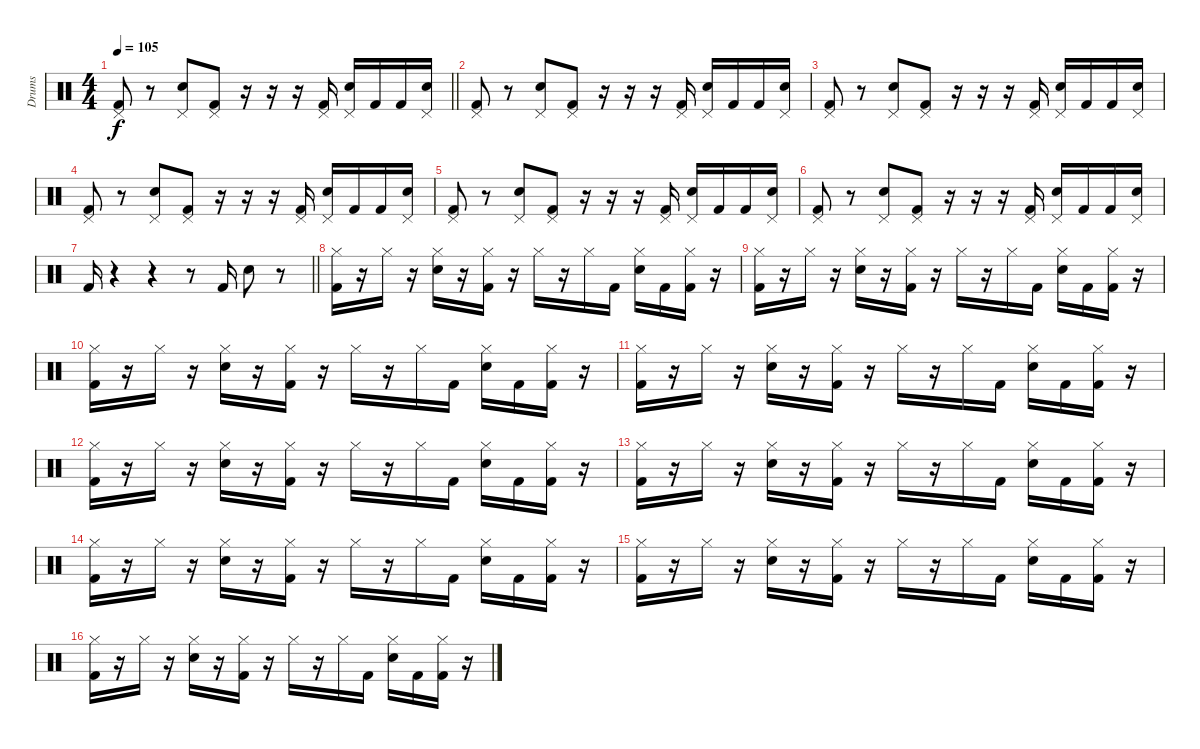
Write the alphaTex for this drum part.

\track ("Drums" "Drums") {instrument percussion}
\staff {score}
\articulation defaults
\ts (4 4)
\tempo 105
\clef neutral
\barLineRight lightlight
\ks c
("Pedal Hi-Hat (hit)" "Kick (hit) 2").8{dy f} r.8 ("Pedal Hi-Hat (hit)" "Snare (hit) 2").8 ("Pedal Hi-Hat (hit)" "Kick (hit) 2").8 r.16 r.16 r.16 ("Pedal Hi-Hat (hit)" "Kick (hit) 2").16 ("Pedal Hi-Hat (hit)" "Snare (hit) 2").16 "Kick (hit) 2".16 "Kick (hit) 2".16 ("Pedal Hi-Hat (hit)" "Snare (hit) 2").16 |
("Pedal Hi-Hat (hit)" "Kick (hit) 2").8 r.8 ("Pedal Hi-Hat (hit)" "Snare (hit) 2").8 ("Pedal Hi-Hat (hit)" "Kick (hit) 2").8 r.16 r.16 r.16 ("Pedal Hi-Hat (hit)" "Kick (hit) 2").16 ("Pedal Hi-Hat (hit)" "Snare (hit) 2").16 "Kick (hit) 2".16 "Kick (hit) 2".16 ("Pedal Hi-Hat (hit)" "Snare (hit) 2").16 |
("Pedal Hi-Hat (hit)" "Kick (hit) 2").8 r.8 ("Pedal Hi-Hat (hit)" "Snare (hit) 2").8 ("Pedal Hi-Hat (hit)" "Kick (hit) 2").8 r.16 r.16 r.16 ("Pedal Hi-Hat (hit)" "Kick (hit) 2").16 ("Pedal Hi-Hat (hit)" "Snare (hit) 2").16 "Kick (hit) 2".16 "Kick (hit) 2".16 ("Pedal Hi-Hat (hit)" "Snare (hit) 2").16 |
("Pedal Hi-Hat (hit)" "Kick (hit) 2").8 r.8 ("Pedal Hi-Hat (hit)" "Snare (hit) 2").8 ("Pedal Hi-Hat (hit)" "Kick (hit) 2").8 r.16 r.16 r.16 ("Pedal Hi-Hat (hit)" "Kick (hit) 2").16 ("Pedal Hi-Hat (hit)" "Snare (hit) 2").16 "Kick (hit) 2".16 "Kick (hit) 2".16 ("Pedal Hi-Hat (hit)" "Snare (hit) 2").16 |
("Pedal Hi-Hat (hit)" "Kick (hit) 2").8 r.8 ("Pedal Hi-Hat (hit)" "Snare (hit) 2").8 ("Pedal Hi-Hat (hit)" "Kick (hit) 2").8 r.16 r.16 r.16 ("Pedal Hi-Hat (hit)" "Kick (hit) 2").16 ("Pedal Hi-Hat (hit)" "Snare (hit) 2").16 "Kick (hit) 2".16 "Kick (hit) 2".16 ("Pedal Hi-Hat (hit)" "Snare (hit) 2").16 |
("Pedal Hi-Hat (hit)" "Kick (hit) 2").8 r.8 ("Pedal Hi-Hat (hit)" "Snare (hit) 2").8 ("Pedal Hi-Hat (hit)" "Kick (hit) 2").8 r.16 r.16 r.16 ("Pedal Hi-Hat (hit)" "Kick (hit) 2").16 ("Pedal Hi-Hat (hit)" "Snare (hit) 2").16 "Kick (hit) 2".16 "Kick (hit) 2".16 ("Pedal Hi-Hat (hit)" "Snare (hit) 2").16 |
\barLineRight lightlight "Kick (hit) 2".16
r.4 r.4 r.8 "Kick (hit) 2".16 "Electric Snare (hit)".8 r.8 |
("Hi-Hat (closed)" "Kick (hit) 2").16 r.16 "Hi-Hat (closed)".16 r.16 ("Hi-Hat (closed)" "Electric Snare (hit)").16 r.16 ("Hi-Hat (closed)" "Kick (hit) 2").16 r.16 "Hi-Hat (closed)".16 r.16 "Hi-Hat (closed)".16 "Kick (hit) 2".16 ("Hi-Hat (closed)" "Electric Snare (hit)").16 "Kick (hit) 2".16 ("Hi-Hat (closed)" "Kick (hit) 2").16 r.16 |
("Hi-Hat (closed)" "Kick (hit) 2").16 r.16 "Hi-Hat (closed)".16 r.16 ("Hi-Hat (closed)" "Electric Snare (hit)").16 r.16 ("Hi-Hat (closed)" "Kick (hit) 2").16 r.16 "Hi-Hat (closed)".16 r.16 "Hi-Hat (closed)".16 "Kick (hit) 2".16 ("Hi-Hat (closed)" "Electric Snare (hit)").16 "Kick (hit) 2".16 ("Hi-Hat (closed)" "Kick (hit) 2").16 r.16 |
("Hi-Hat (closed)" "Kick (hit) 2").16 r.16 "Hi-Hat (closed)".16 r.16 ("Hi-Hat (closed)" "Electric Snare (hit)").16 r.16 ("Hi-Hat (closed)" "Kick (hit) 2").16 r.16 "Hi-Hat (closed)".16 r.16 "Hi-Hat (closed)".16 "Kick (hit) 2".16 ("Hi-Hat (closed)" "Electric Snare (hit)").16 "Kick (hit) 2".16 ("Hi-Hat (closed)" "Kick (hit) 2").16 r.16 |
("Hi-Hat (closed)" "Kick (hit) 2").16 r.16 "Hi-Hat (closed)".16 r.16 ("Hi-Hat (closed)" "Electric Snare (hit)").16 r.16 ("Hi-Hat (closed)" "Kick (hit) 2").16 r.16 "Hi-Hat (closed)".16 r.16 "Hi-Hat (closed)".16 "Kick (hit) 2".16 ("Hi-Hat (closed)" "Electric Snare (hit)").16 "Kick (hit) 2".16 ("Hi-Hat (closed)" "Kick (hit) 2").16 r.16 |
("Hi-Hat (closed)" "Kick (hit) 2").16 r.16 "Hi-Hat (closed)".16 r.16 ("Hi-Hat (closed)" "Electric Snare (hit)").16 r.16 ("Hi-Hat (closed)" "Kick (hit) 2").16 r.16 "Hi-Hat (closed)".16 r.16 "Hi-Hat (closed)".16 "Kick (hit) 2".16 ("Hi-Hat (closed)" "Electric Snare (hit)").16 "Kick (hit) 2".16 ("Hi-Hat (closed)" "Kick (hit) 2").16 r.16 |
("Hi-Hat (closed)" "Kick (hit) 2").16 r.16 "Hi-Hat (closed)".16 r.16 ("Hi-Hat (closed)" "Electric Snare (hit)").16 r.16 ("Hi-Hat (closed)" "Kick (hit) 2").16 r.16 "Hi-Hat (closed)".16 r.16 "Hi-Hat (closed)".16 "Kick (hit) 2".16 ("Hi-Hat (closed)" "Electric Snare (hit)").16 "Kick (hit) 2".16 ("Hi-Hat (closed)" "Kick (hit) 2").16 r.16 |
("Hi-Hat (closed)" "Kick (hit) 2").16 r.16 "Hi-Hat (closed)".16 r.16 ("Hi-Hat (closed)" "Electric Snare (hit)").16 r.16 ("Hi-Hat (closed)" "Kick (hit) 2").16 r.16 "Hi-Hat (closed)".16 r.16 "Hi-Hat (closed)".16 "Kick (hit) 2".16 ("Hi-Hat (closed)" "Electric Snare (hit)").16 "Kick (hit) 2".16 ("Hi-Hat (closed)" "Kick (hit) 2").16 r.16 |
("Hi-Hat (closed)" "Kick (hit) 2").16 r.16 "Hi-Hat (closed)".16 r.16 ("Hi-Hat (closed)" "Electric Snare (hit)").16 r.16 ("Hi-Hat (closed)" "Kick (hit) 2").16 r.16 "Hi-Hat (closed)".16 r.16 "Hi-Hat (closed)".16 "Kick (hit) 2".16 ("Hi-Hat (closed)" "Electric Snare (hit)").16 "Kick (hit) 2".16 ("Hi-Hat (closed)" "Kick (hit) 2").16 r.16 |
("Hi-Hat (closed)" "Kick (hit) 2").16 r.16 "Hi-Hat (closed)".16 r.16 ("Hi-Hat (closed)" "Electric Snare (hit)").16 r.16 ("Hi-Hat (closed)" "Kick (hit) 2").16 r.16 "Hi-Hat (closed)".16 r.16 "Hi-Hat (closed)".16 "Kick (hit) 2".16 ("Hi-Hat (closed)" "Electric Snare (hit)").16 "Kick (hit) 2".16 ("Hi-Hat (closed)" "Kick (hit) 2").16 r.16
